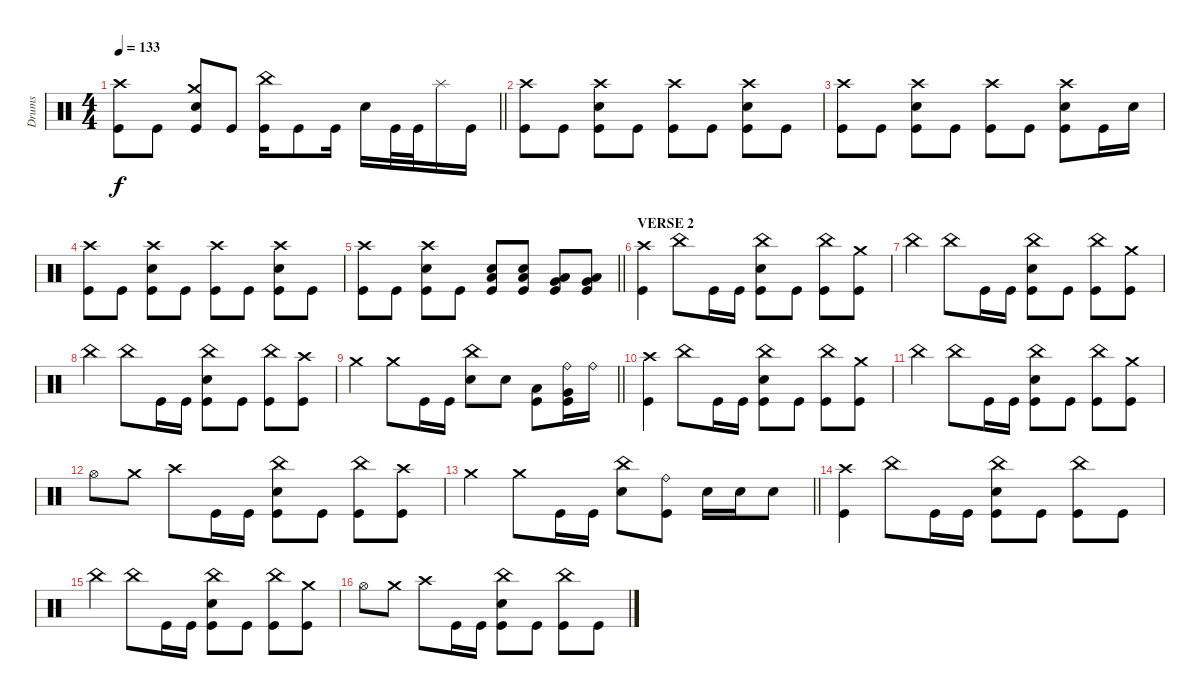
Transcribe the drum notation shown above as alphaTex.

\track ("Drums" "Drums") {instrument percussion}
\staff
\articulation defaults
\ts (4 4)
\tempo 133
\clef neutral
\barLineRight lightlight
\ks c
("Crash high (hit)" "Kick (hit)").8{dy f} "Kick (hit)".8 ("Crash medium (hit)" "Electric Snare (hit)" "Kick (hit)").8 "Kick (hit)".8 ("China (hit)" "Kick (hit)").16 "Kick (hit)".8 "Kick (hit)".16 "Electric Snare (hit)".16 "Kick (hit)".32 "Kick (hit)".32 "Splash (hit)".16 "Kick (hit)".16 |
("Crash high (hit)" "Kick (hit)").8 "Kick (hit)".8 ("Crash high (hit)" "Electric Snare (hit)" "Kick (hit)").8 "Kick (hit)".8 ("Crash high (hit)" "Kick (hit)").8 "Kick (hit)".8 ("Crash high (hit)" "Electric Snare (hit)" "Kick (hit)").8 "Kick (hit)".8 |
("Crash high (hit)" "Kick (hit)").8 "Kick (hit)".8 ("Crash high (hit)" "Electric Snare (hit)" "Kick (hit)").8 "Kick (hit)".8 ("Crash high (hit)" "Kick (hit)").8 "Kick (hit)".8 ("Crash high (hit)" "Electric Snare (hit)" "Kick (hit)").8 "Kick (hit)".16 "Electric Snare (hit)".16 |
("Crash high (hit)" "Kick (hit)").8 "Kick (hit)".8 ("Crash high (hit)" "Electric Snare (hit)" "Kick (hit)").8 "Kick (hit)".8 ("Crash high (hit)" "Kick (hit)").8 "Kick (hit)".8 ("Crash high (hit)" "Electric Snare (hit)" "Kick (hit)").8 "Kick (hit)".8 |
\barLineRight lightlight
("Crash high (hit)" "Kick (hit)").8 "Kick (hit)".8 ("Crash high (hit)" "Electric Snare (hit)" "Kick (hit)").8 "Kick (hit)".8 ("Low Floor Tom (hit)" "Electric Snare (hit)" "Kick (hit)").8 ("Low Floor Tom (hit)" "Electric Snare (hit)" "Kick (hit)").8 ("Very Low Tom (hit)" "Low Floor Tom (hit)" "Kick (hit)").8 ("Very Low Tom (hit)" "Low Floor Tom (hit)" "Kick (hit)").8 |
\section ("" "VERSE 2")
("Crash high (hit)" "Kick (hit)").4 "China (hit)".8 "Kick (hit)".16 "Kick (hit)".16 ("China (hit)" "Electric Snare (hit)" "Kick (hit)").8 "Kick (hit)".8 ("China (hit)" "Kick (hit)").8 ("Crash medium (hit)" "Kick (hit)").8 |
"China (hit)".4 "China (hit)".8 "Kick (hit)".16 "Kick (hit)".16 ("China (hit)" "Electric Snare (hit)" "Kick (hit)").8 "Kick (hit)".8 ("China (hit)" "Kick (hit)").8 ("Crash medium (hit)" "Kick (hit)").8 |
"China (hit)".4 "China (hit)".8 "Kick (hit)".16 "Kick (hit)".16 ("China (hit)" "Electric Snare (hit)" "Kick (hit)").8 "Kick (hit)".8 ("China (hit)" "Kick (hit)").8 ("Crash high (hit)" "Kick (hit)").8 |
\barLineRight lightlight "Crash medium (hit)".4 "Crash medium (hit)".8 "Kick (hit)".16 "Kick (hit)".16
("China (hit)" "Electric Snare (hit)").8 "Electric Snare (hit)".8 ("Low Tom (hit)" "Kick (hit)").8 ("Ride (bell)" "Very Low Tom (hit)" "Kick (hit)").16 "Ride (bell)".16 |
("Crash high (hit)" "Kick (hit)").4 "China (hit)".8 "Kick (hit)".16 "Kick (hit)".16 ("China (hit)" "Electric Snare (hit)" "Kick (hit)").8 "Kick (hit)".8 ("China (hit)" "Kick (hit)").8 ("Crash medium (hit)" "Kick (hit)").8 |
"China (hit)".4 "China (hit)".8 "Kick (hit)".16 "Kick (hit)".16 ("China (hit)" "Electric Snare (hit)" "Kick (hit)").8 "Kick (hit)".8 ("China (hit)" "Kick (hit)").8 ("Crash medium (hit)" "Kick (hit)").8 |
"Hi-Hat (open)".8 "Crash medium (hit)".8 "Crash high (hit)".8 "Kick (hit)".16 "Kick (hit)".16 ("China (hit)" "Electric Snare (hit)" "Kick (hit)").8 "Kick (hit)".8 ("China (hit)" "Kick (hit)").8 ("Crash high (hit)" "Kick (hit)").8 |
\barLineRight lightlight "Crash medium (hit)".4 "Crash medium (hit)".8 "Kick (hit)".16 "Kick (hit)".16
("China (hit)" "Electric Snare (hit)").8 ("Ride (bell)" "Kick (hit)").8 "Electric Snare (hit)".16 "Electric Snare (hit)".16 "Electric Snare (hit)".8 |
("Crash high (hit)" "Kick (hit)").4 "China (hit)".8 "Kick (hit)".16 "Kick (hit)".16 ("China (hit)" "Electric Snare (hit)" "Kick (hit)").8 "Kick (hit)".8 ("China (hit)" "Kick (hit)").8 "Kick (hit)".8 |
"China (hit)".4 "China (hit)".8 "Kick (hit)".16 "Kick (hit)".16 ("China (hit)" "Electric Snare (hit)" "Kick (hit)").8 "Kick (hit)".8 ("China (hit)" "Kick (hit)").8 ("Crash medium (hit)" "Kick (hit)").8 |
"Hi-Hat (open)".8 "Crash medium (hit)".8 "Crash high (hit)".8 "Kick (hit)".16 "Kick (hit)".16 ("China (hit)" "Electric Snare (hit)" "Kick (hit)").8 "Kick (hit)".8 ("China (hit)" "Kick (hit)").8 "Kick (hit)".8
